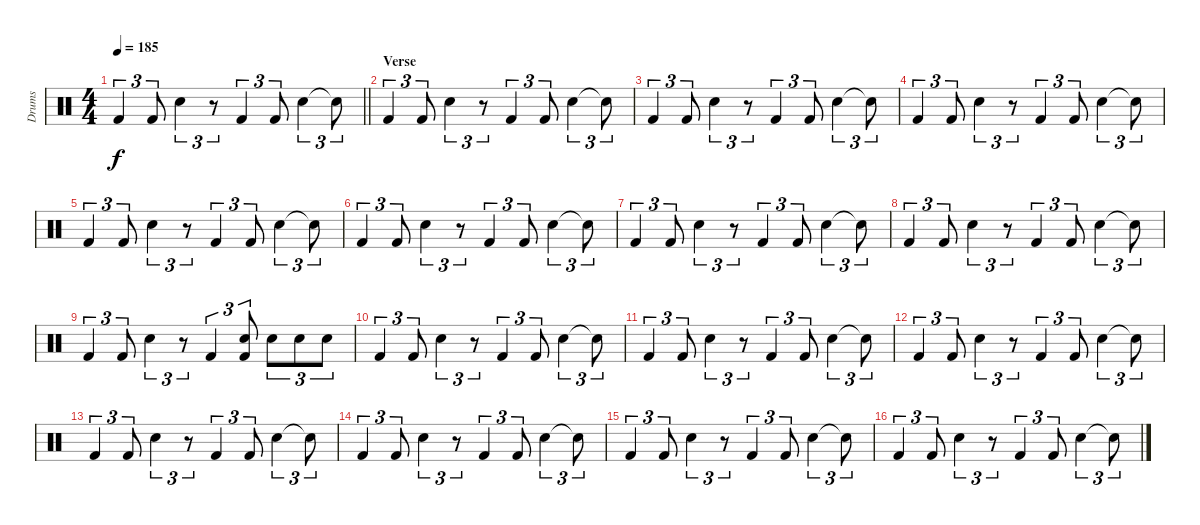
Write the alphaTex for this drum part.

\track ("Drums" "Drums") {instrument percussion}
\staff {score}
\articulation defaults
\ts (4 4)
\tempo 185
\clef neutral
\barLineRight lightlight
\ks c "Kick (hit) 2".4{tu (3 2) dy f} "Kick (hit) 2".8{tu (3 2)} "Snare (hit) 2".4{tu (3 2)}
r.8{tu (3 2)} "Kick (hit) 2".4{tu (3 2)} "Kick (hit) 2".8{tu (3 2)} "Snare (hit) 2".4{tu (3 2)} "Snare (hit)"{t}.8{tu (3 2)} |
\section ("" "Verse")
"Kick (hit) 2".4{tu (3 2)} "Kick (hit) 2".8{tu (3 2)} "Snare (hit) 2".4{tu (3 2)} r.8{tu (3 2)} "Kick (hit) 2".4{tu (3 2)} "Kick (hit) 2".8{tu (3 2)} "Snare (hit) 2".4{tu (3 2)} "Snare (hit)"{t}.8{tu (3 2)} |
"Kick (hit) 2".4{tu (3 2)} "Kick (hit) 2".8{tu (3 2)} "Snare (hit) 2".4{tu (3 2)} r.8{tu (3 2)} "Kick (hit) 2".4{tu (3 2)} "Kick (hit) 2".8{tu (3 2)} "Snare (hit) 2".4{tu (3 2)} "Snare (hit)"{t}.8{tu (3 2)} |
"Kick (hit) 2".4{tu (3 2)} "Kick (hit) 2".8{tu (3 2)} "Snare (hit) 2".4{tu (3 2)} r.8{tu (3 2)} "Kick (hit) 2".4{tu (3 2)} "Kick (hit) 2".8{tu (3 2)} "Snare (hit) 2".4{tu (3 2)} "Snare (hit)"{t}.8{tu (3 2)} |
"Kick (hit) 2".4{tu (3 2)} "Kick (hit) 2".8{tu (3 2)} "Snare (hit) 2".4{tu (3 2)} r.8{tu (3 2)} "Kick (hit) 2".4{tu (3 2)} "Kick (hit) 2".8{tu (3 2)} "Snare (hit) 2".4{tu (3 2)} "Snare (hit)"{t}.8{tu (3 2)} |
"Kick (hit) 2".4{tu (3 2)} "Kick (hit) 2".8{tu (3 2)} "Snare (hit) 2".4{tu (3 2)} r.8{tu (3 2)} "Kick (hit) 2".4{tu (3 2)} "Kick (hit) 2".8{tu (3 2)} "Snare (hit) 2".4{tu (3 2)} "Snare (hit)"{t}.8{tu (3 2)} |
"Kick (hit) 2".4{tu (3 2)} "Kick (hit) 2".8{tu (3 2)} "Snare (hit) 2".4{tu (3 2)} r.8{tu (3 2)} "Kick (hit) 2".4{tu (3 2)} "Kick (hit) 2".8{tu (3 2)} "Snare (hit) 2".4{tu (3 2)} "Snare (hit)"{t}.8{tu (3 2)} |
"Kick (hit) 2".4{tu (3 2)} "Kick (hit) 2".8{tu (3 2)} "Snare (hit) 2".4{tu (3 2)} r.8{tu (3 2)} "Kick (hit) 2".4{tu (3 2)} "Kick (hit) 2".8{tu (3 2)} "Snare (hit) 2".4{tu (3 2)} "Snare (hit)"{t}.8{tu (3 2)} |
"Kick (hit) 2".4{tu (3 2)} "Kick (hit) 2".8{tu (3 2)} "Snare (hit) 2".4{tu (3 2)} r.8{tu (3 2)} "Kick (hit) 2".4{tu (3 2)} ("Snare (hit) 2" "Kick (hit) 2").8{tu (3 2)} "Snare (hit) 2".8{tu (3 2)} "Snare (hit) 2".8{tu (3 2)} "Snare (hit) 2".8{tu (3 2)} |
"Kick (hit) 2".4{tu (3 2)} "Kick (hit) 2".8{tu (3 2)} "Snare (hit) 2".4{tu (3 2)} r.8{tu (3 2)} "Kick (hit) 2".4{tu (3 2)} "Kick (hit) 2".8{tu (3 2)} "Snare (hit) 2".4{tu (3 2)} "Snare (hit)"{t}.8{tu (3 2)} |
"Kick (hit) 2".4{tu (3 2)} "Kick (hit) 2".8{tu (3 2)} "Snare (hit) 2".4{tu (3 2)} r.8{tu (3 2)} "Kick (hit) 2".4{tu (3 2)} "Kick (hit) 2".8{tu (3 2)} "Snare (hit) 2".4{tu (3 2)} "Snare (hit)"{t}.8{tu (3 2)} |
"Kick (hit) 2".4{tu (3 2)} "Kick (hit) 2".8{tu (3 2)} "Snare (hit) 2".4{tu (3 2)} r.8{tu (3 2)} "Kick (hit) 2".4{tu (3 2)} "Kick (hit) 2".8{tu (3 2)} "Snare (hit) 2".4{tu (3 2)} "Snare (hit)"{t}.8{tu (3 2)} |
"Kick (hit) 2".4{tu (3 2)} "Kick (hit) 2".8{tu (3 2)} "Snare (hit) 2".4{tu (3 2)} r.8{tu (3 2)} "Kick (hit) 2".4{tu (3 2)} "Kick (hit) 2".8{tu (3 2)} "Snare (hit) 2".4{tu (3 2)} "Snare (hit)"{t}.8{tu (3 2)} |
"Kick (hit) 2".4{tu (3 2)} "Kick (hit) 2".8{tu (3 2)} "Snare (hit) 2".4{tu (3 2)} r.8{tu (3 2)} "Kick (hit) 2".4{tu (3 2)} "Kick (hit) 2".8{tu (3 2)} "Snare (hit) 2".4{tu (3 2)} "Snare (hit)"{t}.8{tu (3 2)} |
"Kick (hit) 2".4{tu (3 2)} "Kick (hit) 2".8{tu (3 2)} "Snare (hit) 2".4{tu (3 2)} r.8{tu (3 2)} "Kick (hit) 2".4{tu (3 2)} "Kick (hit) 2".8{tu (3 2)} "Snare (hit) 2".4{tu (3 2)} "Snare (hit)"{t}.8{tu (3 2)} |
"Kick (hit) 2".4{tu (3 2)} "Kick (hit) 2".8{tu (3 2)} "Snare (hit) 2".4{tu (3 2)} r.8{tu (3 2)} "Kick (hit) 2".4{tu (3 2)} "Kick (hit) 2".8{tu (3 2)} "Snare (hit) 2".4{tu (3 2)} "Snare (hit)"{t}.8{tu (3 2)}
